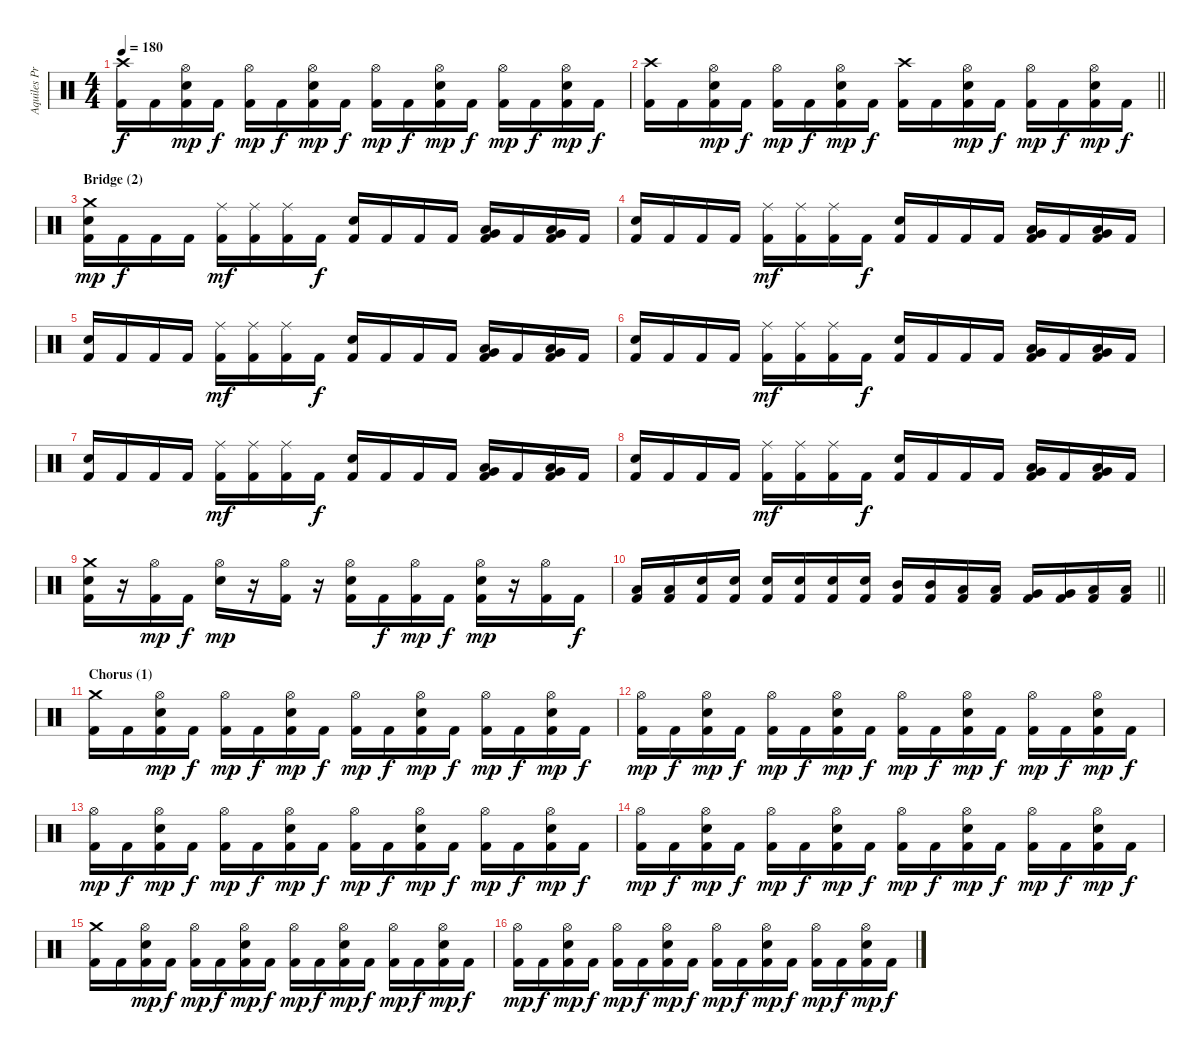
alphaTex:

\track ("Aquiles Priester" "Aquiles Pr") {instrument percussion}
\staff {score}
\articulation defaults
\ts (4 4)
\tempo 180
\clef neutral
\ks c
("Crash high (hit)" "Kick (hit) 2").16{dy f} "Kick (hit) 2".16 ("Hi-Hat (open)" "Snare (hit) 2" "Kick (hit) 2").16{dy mp} "Kick (hit) 2".16{dy f} ("Hi-Hat (open)" "Kick (hit) 2").16{dy mp} "Kick (hit) 2".16{dy f} ("Hi-Hat (open)" "Snare (hit) 2" "Kick (hit) 2").16{dy mp} "Kick (hit) 2".16{dy f} ("Hi-Hat (open)" "Kick (hit) 2").16{dy mp} "Kick (hit) 2".16{dy f} ("Hi-Hat (open)" "Snare (hit) 2" "Kick (hit) 2").16{dy mp} "Kick (hit) 2".16{dy f} ("Hi-Hat (open)" "Kick (hit) 2").16{dy mp} "Kick (hit) 2".16{dy f} ("Hi-Hat (open)" "Snare (hit) 2" "Kick (hit) 2").16{dy mp} "Kick (hit) 2".16{dy f} |
\barLineRight lightlight
("Crash high (hit)" "Kick (hit) 2").16 "Kick (hit) 2".16 ("Hi-Hat (open)" "Snare (hit) 2" "Kick (hit) 2").16{dy mp} "Kick (hit) 2".16{dy f} ("Hi-Hat (open)" "Kick (hit) 2").16{dy mp} "Kick (hit) 2".16{dy f} ("Hi-Hat (open)" "Snare (hit) 2" "Kick (hit) 2").16{dy mp} "Kick (hit) 2".16{dy f} ("Crash high (hit)" "Kick (hit) 2").16 "Kick (hit) 2".16 ("Hi-Hat (open)" "Snare (hit) 2" "Kick (hit) 2").16{dy mp} "Kick (hit) 2".16{dy f} ("Hi-Hat (open)" "Kick (hit) 2").16{dy mp} "Kick (hit) 2".16{dy f} ("Hi-Hat (open)" "Snare (hit) 2" "Kick (hit) 2").16{dy mp} "Kick (hit) 2".16{dy f} |
\section ("" "Bridge (2)")
("Crash medium (hit)" "Snare (hit) 2" "Kick (hit) 2").16{dy mp} "Kick (hit) 2".16{dy f} "Kick (hit) 2".16 "Kick (hit) 2".16 ("Ride (middle)" "Kick (hit) 2").16{dy mf} ("Ride (middle)" "Kick (hit) 2").16 ("Ride (middle)" "Kick (hit) 2").16 "Kick (hit) 2".16{dy f} ("Snare (hit) 2" "Kick (hit) 2").16 "Kick (hit) 2".16 "Kick (hit) 2".16 "Kick (hit) 2".16 ("Low Tom (hit)" "Very Low Tom (hit)" "Kick (hit) 2").16 "Kick (hit) 2".16 ("Low Tom (hit)" "Very Low Tom (hit)" "Kick (hit) 2").16 "Kick (hit) 2".16 |
("Snare (hit) 2" "Kick (hit) 2").16 "Kick (hit) 2".16 "Kick (hit) 2".16 "Kick (hit) 2".16 ("Ride (middle)" "Kick (hit) 2").16{dy mf} ("Ride (middle)" "Kick (hit) 2").16 ("Ride (middle)" "Kick (hit) 2").16 "Kick (hit) 2".16{dy f} ("Snare (hit) 2" "Kick (hit) 2").16 "Kick (hit) 2".16 "Kick (hit) 2".16 "Kick (hit) 2".16 ("Low Tom (hit)" "Very Low Tom (hit)" "Kick (hit) 2").16 "Kick (hit) 2".16 ("Low Tom (hit)" "Very Low Tom (hit)" "Kick (hit) 2").16 "Kick (hit) 2".16 |
("Snare (hit) 2" "Kick (hit) 2").16 "Kick (hit) 2".16 "Kick (hit) 2".16 "Kick (hit) 2".16 ("Ride (middle)" "Kick (hit) 2").16{dy mf} ("Ride (middle)" "Kick (hit) 2").16 ("Ride (middle)" "Kick (hit) 2").16 "Kick (hit) 2".16{dy f} ("Snare (hit) 2" "Kick (hit) 2").16 "Kick (hit) 2".16 "Kick (hit) 2".16 "Kick (hit) 2".16 ("Low Tom (hit)" "Very Low Tom (hit)" "Kick (hit) 2").16 "Kick (hit) 2".16 ("Low Tom (hit)" "Very Low Tom (hit)" "Kick (hit) 2").16 "Kick (hit) 2".16 |
("Snare (hit) 2" "Kick (hit) 2").16 "Kick (hit) 2".16 "Kick (hit) 2".16 "Kick (hit) 2".16 ("Ride (middle)" "Kick (hit) 2").16{dy mf} ("Ride (middle)" "Kick (hit) 2").16 ("Ride (middle)" "Kick (hit) 2").16 "Kick (hit) 2".16{dy f} ("Snare (hit) 2" "Kick (hit) 2").16 "Kick (hit) 2".16 "Kick (hit) 2".16 "Kick (hit) 2".16 ("Low Tom (hit)" "Very Low Tom (hit)" "Kick (hit) 2").16 "Kick (hit) 2".16 ("Low Tom (hit)" "Very Low Tom (hit)" "Kick (hit) 2").16 "Kick (hit) 2".16 |
("Snare (hit) 2" "Kick (hit) 2").16 "Kick (hit) 2".16 "Kick (hit) 2".16 "Kick (hit) 2".16 ("Ride (middle)" "Kick (hit) 2").16{dy mf} ("Ride (middle)" "Kick (hit) 2").16 ("Ride (middle)" "Kick (hit) 2").16 "Kick (hit) 2".16{dy f} ("Snare (hit) 2" "Kick (hit) 2").16 "Kick (hit) 2".16 "Kick (hit) 2".16 "Kick (hit) 2".16 ("Low Tom (hit)" "Very Low Tom (hit)" "Kick (hit) 2").16 "Kick (hit) 2".16 ("Low Tom (hit)" "Very Low Tom (hit)" "Kick (hit) 2").16 "Kick (hit) 2".16 |
("Snare (hit) 2" "Kick (hit) 2").16 "Kick (hit) 2".16 "Kick (hit) 2".16 "Kick (hit) 2".16 ("Ride (middle)" "Kick (hit) 2").16{dy mf} ("Ride (middle)" "Kick (hit) 2").16 ("Ride (middle)" "Kick (hit) 2").16 "Kick (hit) 2".16{dy f} ("Snare (hit) 2" "Kick (hit) 2").16 "Kick (hit) 2".16 "Kick (hit) 2".16 "Kick (hit) 2".16 ("Low Tom (hit)" "Very Low Tom (hit)" "Kick (hit) 2").16 "Kick (hit) 2".16 ("Low Tom (hit)" "Very Low Tom (hit)" "Kick (hit) 2").16 "Kick (hit) 2".16 |
("Crash medium (hit)" "Snare (hit) 2" "Kick (hit) 2").16 r.16 ("Hi-Hat (open)" "Kick (hit) 2").16{dy mp} "Kick (hit) 2".16{dy f} ("Hi-Hat (open)" "Snare (hit) 2").16{dy mp} r.16 ("Hi-Hat (open)" "Kick (hit) 2").16 r.16 ("Hi-Hat (open)" "Snare (hit) 2" "Kick (hit) 2").16 "Kick (hit) 2".16{dy f} ("Hi-Hat (open)" "Kick (hit) 2").16{dy mp} "Kick (hit) 2".16{dy f} ("Hi-Hat (open)" "Snare (hit) 2" "Kick (hit) 2").16{dy mp} r.16 ("Hi-Hat (open)" "Kick (hit) 2").16 "Kick (hit) 2".16{dy f} |
\barLineRight lightlight
("Low Tom (hit)" "Kick (hit) 2").16 ("Low Tom (hit)" "Kick (hit) 2").16 ("Snare (hit) 2" "Kick (hit) 2").16 ("Snare (hit) 2" "Kick (hit) 2").16 ("Snare (hit) 2" "Kick (hit) 2").16 ("Snare (hit) 2" "Kick (hit) 2").16 ("Snare (hit) 2" "Kick (hit) 2").16 ("Snare (hit) 2" "Kick (hit) 2").16 ("Mid Tom (hit)" "Kick (hit) 2").16 ("Mid Tom (hit)" "Kick (hit) 2").16 ("Low Tom (hit)" "Kick (hit) 2").16 ("Low Tom (hit)" "Kick (hit) 2").16 ("Very Low Tom (hit)" "Kick (hit) 2").16 ("Very Low Tom (hit)" "Kick (hit) 2").16 ("Low Floor Tom (hit)" "Kick (hit) 2").16 ("Low Floor Tom (hit)" "Kick (hit) 2").16 |
\section ("" "Chorus (1)")
("Crash medium (hit)" "Kick (hit) 2").16 "Kick (hit) 2".16 ("Hi-Hat (open)" "Snare (hit) 2" "Kick (hit) 2").16{dy mp} "Kick (hit) 2".16{dy f} ("Hi-Hat (open)" "Kick (hit) 2").16{dy mp} "Kick (hit) 2".16{dy f} ("Hi-Hat (open)" "Snare (hit) 2" "Kick (hit) 2").16{dy mp} "Kick (hit) 2".16{dy f} ("Hi-Hat (open)" "Kick (hit) 2").16{dy mp} "Kick (hit) 2".16{dy f} ("Hi-Hat (open)" "Snare (hit) 2" "Kick (hit) 2").16{dy mp} "Kick (hit) 2".16{dy f} ("Hi-Hat (open)" "Kick (hit) 2").16{dy mp} "Kick (hit) 2".16{dy f} ("Hi-Hat (open)" "Snare (hit) 2" "Kick (hit) 2").16{dy mp} "Kick (hit) 2".16{dy f} |
("Hi-Hat (open)" "Kick (hit) 2").16{dy mp} "Kick (hit) 2".16{dy f} ("Hi-Hat (open)" "Snare (hit) 2" "Kick (hit) 2").16{dy mp} "Kick (hit) 2".16{dy f} ("Hi-Hat (open)" "Kick (hit) 2").16{dy mp} "Kick (hit) 2".16{dy f} ("Hi-Hat (open)" "Snare (hit) 2" "Kick (hit) 2").16{dy mp} "Kick (hit) 2".16{dy f} ("Hi-Hat (open)" "Kick (hit) 2").16{dy mp} "Kick (hit) 2".16{dy f} ("Hi-Hat (open)" "Snare (hit) 2" "Kick (hit) 2").16{dy mp} "Kick (hit) 2".16{dy f} ("Hi-Hat (open)" "Kick (hit) 2").16{dy mp} "Kick (hit) 2".16{dy f} ("Hi-Hat (open)" "Snare (hit) 2" "Kick (hit) 2").16{dy mp} "Kick (hit) 2".16{dy f} |
("Hi-Hat (open)" "Kick (hit) 2").16{dy mp} "Kick (hit) 2".16{dy f} ("Hi-Hat (open)" "Snare (hit) 2" "Kick (hit) 2").16{dy mp} "Kick (hit) 2".16{dy f} ("Hi-Hat (open)" "Kick (hit) 2").16{dy mp} "Kick (hit) 2".16{dy f} ("Hi-Hat (open)" "Snare (hit) 2" "Kick (hit) 2").16{dy mp} "Kick (hit) 2".16{dy f} ("Hi-Hat (open)" "Kick (hit) 2").16{dy mp} "Kick (hit) 2".16{dy f} ("Hi-Hat (open)" "Snare (hit) 2" "Kick (hit) 2").16{dy mp} "Kick (hit) 2".16{dy f} ("Hi-Hat (open)" "Kick (hit) 2").16{dy mp} "Kick (hit) 2".16{dy f} ("Hi-Hat (open)" "Snare (hit) 2" "Kick (hit) 2").16{dy mp} "Kick (hit) 2".16{dy f} |
("Hi-Hat (open)" "Kick (hit) 2").16{dy mp} "Kick (hit) 2".16{dy f} ("Hi-Hat (open)" "Snare (hit) 2" "Kick (hit) 2").16{dy mp} "Kick (hit) 2".16{dy f} ("Hi-Hat (open)" "Kick (hit) 2").16{dy mp} "Kick (hit) 2".16{dy f} ("Hi-Hat (open)" "Snare (hit) 2" "Kick (hit) 2").16{dy mp} "Kick (hit) 2".16{dy f} ("Hi-Hat (open)" "Kick (hit) 2").16{dy mp} "Kick (hit) 2".16{dy f} ("Hi-Hat (open)" "Snare (hit) 2" "Kick (hit) 2").16{dy mp} "Kick (hit) 2".16{dy f} ("Hi-Hat (open)" "Kick (hit) 2").16{dy mp} "Kick (hit) 2".16{dy f} ("Hi-Hat (open)" "Snare (hit) 2" "Kick (hit) 2").16{dy mp} "Kick (hit) 2".16{dy f} |
("Crash medium (hit)" "Kick (hit) 2").16 "Kick (hit) 2".16 ("Hi-Hat (open)" "Snare (hit) 2" "Kick (hit) 2").16{dy mp} "Kick (hit) 2".16{dy f} ("Hi-Hat (open)" "Kick (hit) 2").16{dy mp} "Kick (hit) 2".16{dy f} ("Hi-Hat (open)" "Snare (hit) 2" "Kick (hit) 2").16{dy mp} "Kick (hit) 2".16{dy f} ("Hi-Hat (open)" "Kick (hit) 2").16{dy mp} "Kick (hit) 2".16{dy f} ("Hi-Hat (open)" "Snare (hit) 2" "Kick (hit) 2").16{dy mp} "Kick (hit) 2".16{dy f} ("Hi-Hat (open)" "Kick (hit) 2").16{dy mp} "Kick (hit) 2".16{dy f} ("Hi-Hat (open)" "Snare (hit) 2" "Kick (hit) 2").16{dy mp} "Kick (hit) 2".16{dy f} |
("Hi-Hat (open)" "Kick (hit) 2").16{dy mp} "Kick (hit) 2".16{dy f} ("Hi-Hat (open)" "Snare (hit) 2" "Kick (hit) 2").16{dy mp} "Kick (hit) 2".16{dy f} ("Hi-Hat (open)" "Kick (hit) 2").16{dy mp} "Kick (hit) 2".16{dy f} ("Hi-Hat (open)" "Snare (hit) 2" "Kick (hit) 2").16{dy mp} "Kick (hit) 2".16{dy f} ("Hi-Hat (open)" "Kick (hit) 2").16{dy mp} "Kick (hit) 2".16{dy f} ("Hi-Hat (open)" "Snare (hit) 2" "Kick (hit) 2").16{dy mp} "Kick (hit) 2".16{dy f} ("Hi-Hat (open)" "Kick (hit) 2").16{dy mp} "Kick (hit) 2".16{dy f} ("Hi-Hat (open)" "Snare (hit) 2" "Kick (hit) 2").16{dy mp} "Kick (hit) 2".16{dy f}
